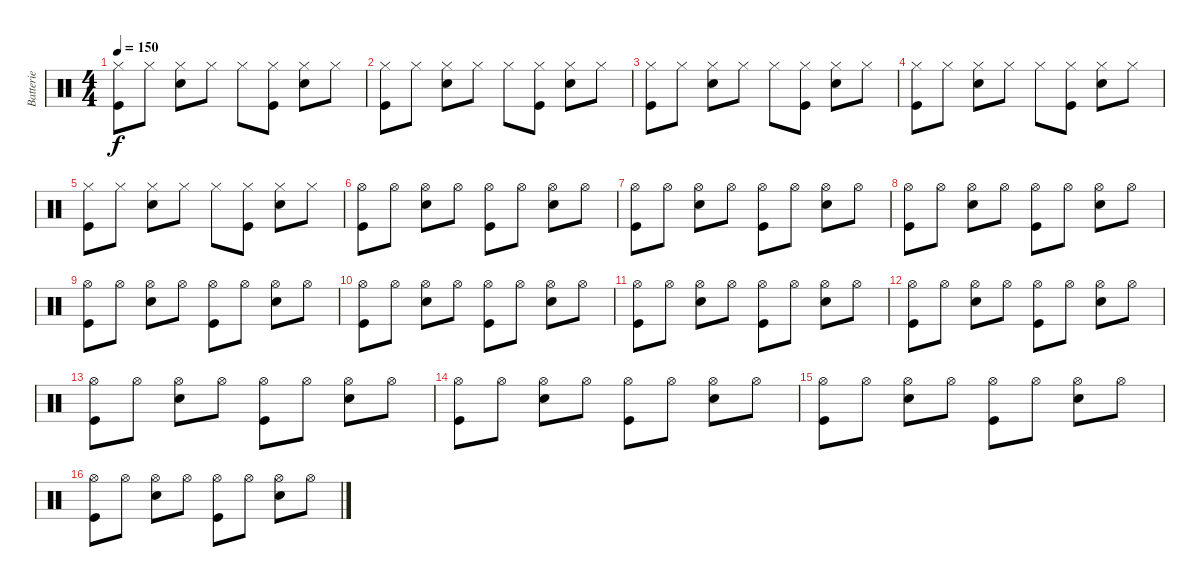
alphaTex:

\track ("Batterie" "Batterie") {instrument percussion}
\staff {score}
\articulation defaults
\ts (4 4)
\tempo 150
\clef neutral
\ks c
("Hi-Hat (closed)" "Kick (hit)").8{dy f} "Hi-Hat (closed)".8 ("Hi-Hat (closed)" "Snare (hit) 2").8 "Hi-Hat (closed)".8 "Hi-Hat (closed)".8 ("Hi-Hat (closed)" "Kick (hit)").8 ("Hi-Hat (closed)" "Snare (hit) 2").8 "Hi-Hat (closed)".8 |
("Hi-Hat (closed)" "Kick (hit)").8 "Hi-Hat (closed)".8 ("Hi-Hat (closed)" "Snare (hit) 2").8 "Hi-Hat (closed)".8 "Hi-Hat (closed)".8 ("Hi-Hat (closed)" "Kick (hit)").8 ("Hi-Hat (closed)" "Snare (hit) 2").8 "Hi-Hat (closed)".8 |
("Hi-Hat (closed)" "Kick (hit)").8 "Hi-Hat (closed)".8 ("Hi-Hat (closed)" "Snare (hit) 2").8 "Hi-Hat (closed)".8 "Hi-Hat (closed)".8 ("Hi-Hat (closed)" "Kick (hit)").8 ("Hi-Hat (closed)" "Snare (hit) 2").8 "Hi-Hat (closed)".8 |
("Hi-Hat (closed)" "Kick (hit)").8 "Hi-Hat (closed)".8 ("Hi-Hat (closed)" "Snare (hit) 2").8 "Hi-Hat (closed)".8 "Hi-Hat (closed)".8 ("Hi-Hat (closed)" "Kick (hit)").8 ("Hi-Hat (closed)" "Snare (hit) 2").8 "Hi-Hat (closed)".8 |
("Hi-Hat (closed)" "Kick (hit)").8 "Hi-Hat (closed)".8 ("Hi-Hat (closed)" "Snare (hit) 2").8 "Hi-Hat (closed)".8 "Hi-Hat (closed)".8 ("Hi-Hat (closed)" "Kick (hit)").8 ("Hi-Hat (closed)" "Snare (hit) 2").8 "Hi-Hat (closed)".8 |
("Hi-Hat (open)" "Kick (hit)").8 "Hi-Hat (open)".8 ("Hi-Hat (open)" "Snare (hit) 2").8 "Hi-Hat (open)".8 ("Hi-Hat (open)" "Kick (hit)").8 "Hi-Hat (open)".8 ("Hi-Hat (open)" "Snare (hit) 2").8 "Hi-Hat (open)".8 |
("Hi-Hat (open)" "Kick (hit)").8 "Hi-Hat (open)".8 ("Hi-Hat (open)" "Snare (hit) 2").8 "Hi-Hat (open)".8 ("Hi-Hat (open)" "Kick (hit)").8 "Hi-Hat (open)".8 ("Hi-Hat (open)" "Snare (hit) 2").8 "Hi-Hat (open)".8 |
("Hi-Hat (open)" "Kick (hit)").8 "Hi-Hat (open)".8 ("Hi-Hat (open)" "Snare (hit) 2").8 "Hi-Hat (open)".8 ("Hi-Hat (open)" "Kick (hit)").8 "Hi-Hat (open)".8 ("Hi-Hat (open)" "Snare (hit) 2").8 "Hi-Hat (open)".8 |
("Hi-Hat (open)" "Kick (hit)").8 "Hi-Hat (open)".8 ("Hi-Hat (open)" "Snare (hit) 2").8 "Hi-Hat (open)".8 ("Hi-Hat (open)" "Kick (hit)").8 "Hi-Hat (open)".8 ("Hi-Hat (open)" "Snare (hit) 2").8 "Hi-Hat (open)".8 |
("Hi-Hat (open)" "Kick (hit)").8 "Hi-Hat (open)".8 ("Hi-Hat (open)" "Snare (hit) 2").8 "Hi-Hat (open)".8 ("Hi-Hat (open)" "Kick (hit)").8 "Hi-Hat (open)".8 ("Hi-Hat (open)" "Snare (hit) 2").8 "Hi-Hat (open)".8 |
("Hi-Hat (open)" "Kick (hit)").8 "Hi-Hat (open)".8 ("Hi-Hat (open)" "Snare (hit) 2").8 "Hi-Hat (open)".8 ("Hi-Hat (open)" "Kick (hit)").8 "Hi-Hat (open)".8 ("Hi-Hat (open)" "Snare (hit) 2").8 "Hi-Hat (open)".8 |
("Hi-Hat (open)" "Kick (hit)").8 "Hi-Hat (open)".8 ("Hi-Hat (open)" "Snare (hit) 2").8 "Hi-Hat (open)".8 ("Hi-Hat (open)" "Kick (hit)").8 "Hi-Hat (open)".8 ("Hi-Hat (open)" "Snare (hit) 2").8 "Hi-Hat (open)".8 |
("Hi-Hat (open)" "Kick (hit)").8 "Hi-Hat (open)".8 ("Hi-Hat (open)" "Snare (hit) 2").8 "Hi-Hat (open)".8 ("Hi-Hat (open)" "Kick (hit)").8 "Hi-Hat (open)".8 ("Hi-Hat (open)" "Snare (hit) 2").8 "Hi-Hat (open)".8 |
("Hi-Hat (open)" "Kick (hit)").8 "Hi-Hat (open)".8 ("Hi-Hat (open)" "Snare (hit) 2").8 "Hi-Hat (open)".8 ("Hi-Hat (open)" "Kick (hit)").8 "Hi-Hat (open)".8 ("Hi-Hat (open)" "Snare (hit) 2").8 "Hi-Hat (open)".8 |
("Hi-Hat (open)" "Kick (hit)").8 "Hi-Hat (open)".8 ("Hi-Hat (open)" "Snare (hit) 2").8 "Hi-Hat (open)".8 ("Hi-Hat (open)" "Kick (hit)").8 "Hi-Hat (open)".8 ("Hi-Hat (open)" "Snare (hit) 2").8 "Hi-Hat (open)".8 |
("Hi-Hat (open)" "Kick (hit)").8 "Hi-Hat (open)".8 ("Hi-Hat (open)" "Snare (hit) 2").8 "Hi-Hat (open)".8 ("Hi-Hat (open)" "Kick (hit)").8 "Hi-Hat (open)".8 ("Hi-Hat (open)" "Snare (hit) 2").8 "Hi-Hat (open)".8
